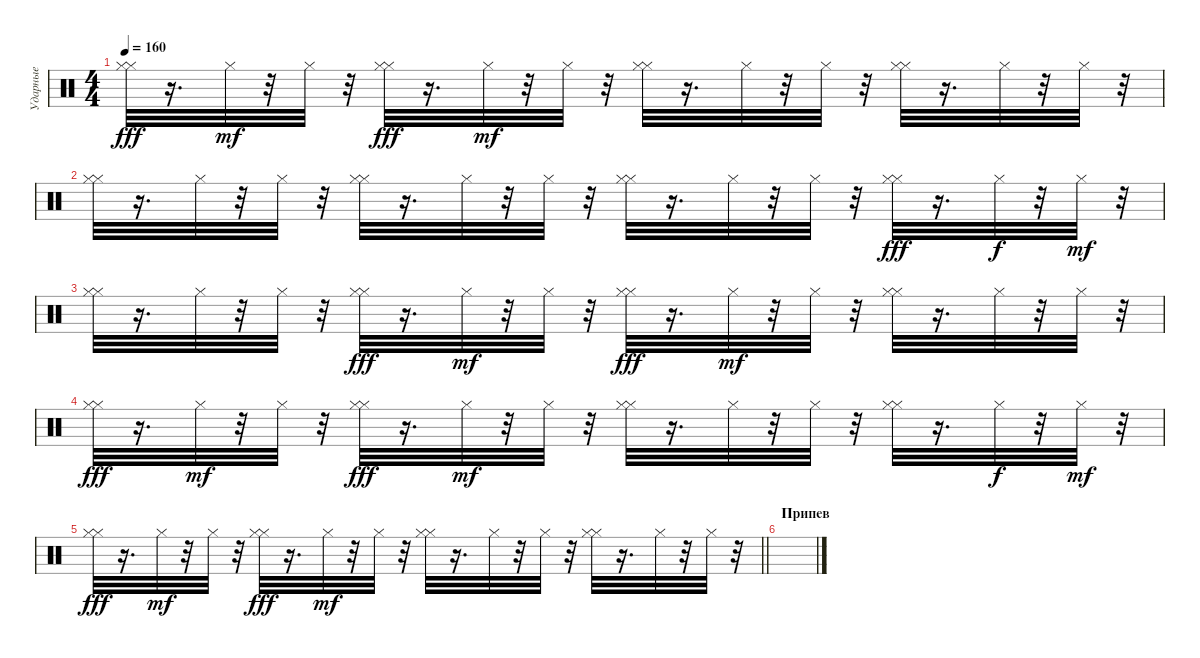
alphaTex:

\track ("Ударные" "Ударные") {instrument percussion}
\staff {score}
\articulation defaults
\ts (4 4)
\tempo 160
\clef neutral
\ks c
("Hi-Hat (closed)" "Hi-Hat (closed)").32{dy fff} r.16{d} "Hi-Hat (closed)".32{dy mf} r.32 "Hi-Hat (closed)".32 r.32 ("Hi-Hat (closed)" "Hi-Hat (closed)").32{dy fff} r.16{d} "Hi-Hat (closed)".32{dy mf} r.32 "Hi-Hat (closed)".32 r.32 ("Hi-Hat (closed)" "Hi-Hat (closed)").32 r.16{d} "Hi-Hat (closed)".32 r.32 "Hi-Hat (closed)".32 r.32 ("Hi-Hat (closed)" "Hi-Hat (closed)").32 r.16{d} "Hi-Hat (closed)".32 r.32 "Hi-Hat (closed)".32 r.32 |
("Hi-Hat (closed)" "Hi-Hat (closed)").32 r.16{d} "Hi-Hat (closed)".32 r.32 "Hi-Hat (closed)".32 r.32 ("Hi-Hat (closed)" "Hi-Hat (closed)").32 r.16{d} "Hi-Hat (closed)".32 r.32 "Hi-Hat (closed)".32 r.32 ("Hi-Hat (closed)" "Hi-Hat (closed)").32 r.16{d} "Hi-Hat (closed)".32 r.32 "Hi-Hat (closed)".32 r.32 ("Hi-Hat (closed)" "Hi-Hat (closed)").32{dy fff} r.16{d} "Hi-Hat (closed)".32{dy f} r.32 "Hi-Hat (closed)".32{dy mf} r.32 |
("Hi-Hat (closed)" "Hi-Hat (closed)").32 r.16{d} "Hi-Hat (closed)".32 r.32 "Hi-Hat (closed)".32 r.32 ("Hi-Hat (closed)" "Hi-Hat (closed)").32{dy fff} r.16{d} "Hi-Hat (closed)".32{dy mf} r.32 "Hi-Hat (closed)".32 r.32 ("Hi-Hat (closed)" "Hi-Hat (closed)").32{dy fff} r.16{d} "Hi-Hat (closed)".32{dy mf} r.32 "Hi-Hat (closed)".32 r.32 ("Hi-Hat (closed)" "Hi-Hat (closed)").32 r.16{d} "Hi-Hat (closed)".32 r.32 "Hi-Hat (closed)".32 r.32 |
("Hi-Hat (closed)" "Hi-Hat (closed)").32{dy fff} r.16{d} "Hi-Hat (closed)".32{dy mf} r.32 "Hi-Hat (closed)".32 r.32 ("Hi-Hat (closed)" "Hi-Hat (closed)").32{dy fff} r.16{d} "Hi-Hat (closed)".32{dy mf} r.32 "Hi-Hat (closed)".32 r.32 ("Hi-Hat (closed)" "Hi-Hat (closed)").32 r.16{d} "Hi-Hat (closed)".32 r.32 "Hi-Hat (closed)".32 r.32 ("Hi-Hat (closed)" "Hi-Hat (closed)").32 r.16{d} "Hi-Hat (closed)".32{dy f} r.32 "Hi-Hat (closed)".32{dy mf} r.32 |
\barLineRight lightlight
("Hi-Hat (closed)" "Hi-Hat (closed)").32{dy fff} r.16{d} "Hi-Hat (closed)".32{dy mf} r.32 "Hi-Hat (closed)".32 r.32 ("Hi-Hat (closed)" "Hi-Hat (closed)").32{dy fff} r.16{d} "Hi-Hat (closed)".32{dy mf} r.32 "Hi-Hat (closed)".32 r.32 ("Hi-Hat (closed)" "Hi-Hat (closed)").32 r.16{d} "Hi-Hat (closed)".32 r.32 "Hi-Hat (closed)".32 r.32 ("Hi-Hat (closed)" "Hi-Hat (closed)").32 r.16{d} "Hi-Hat (closed)".32 r.32 "Hi-Hat (closed)".32 r.32 |
\section ("" "Припев")
